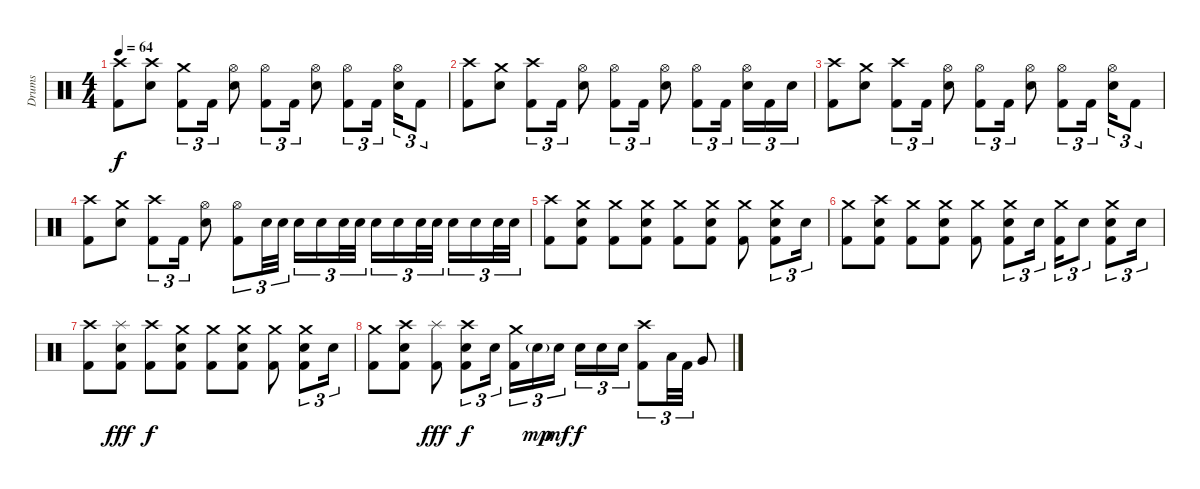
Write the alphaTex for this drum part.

\track ("Drums" "Drums") {instrument percussion}
\staff {score}
\articulation defaults
\ts (4 4)
\tempo 64
\clef neutral
\ks c
("Crash high (hit)" "Kick (hit) 2").8{dy f} ("Crash high (hit)" "Snare (hit) 2").8 ("Crash medium (hit)" "Kick (hit) 2").8{tu (3 2)} "Kick (hit) 2".16{tu (3 2)} ("Hi-Hat (open)" "Snare (hit) 2").8 ("Hi-Hat (open)" "Kick (hit) 2").8{tu (3 2)} "Kick (hit) 2".16{tu (3 2)} ("Hi-Hat (open)" "Snare (hit) 2").8 ("Hi-Hat (open)" "Kick (hit) 2").8{tu (3 2)} "Kick (hit) 2".16{tu (3 2)} ("Hi-Hat (open)" "Snare (hit) 2").16{tu (3 2)} "Kick (hit) 2".8{tu (3 2)} |
("Crash high (hit)" "Kick (hit) 2").8 ("Crash medium (hit)" "Snare (hit) 2").8 ("Crash high (hit)" "Kick (hit) 2").8{tu (3 2)} "Kick (hit) 2".16{tu (3 2)} ("Hi-Hat (open)" "Snare (hit) 2").8 ("Hi-Hat (open)" "Kick (hit) 2").8{tu (3 2)} "Kick (hit) 2".16{tu (3 2)} ("Hi-Hat (open)" "Snare (hit) 2").8 ("Hi-Hat (open)" "Kick (hit) 2").8{tu (3 2)} "Kick (hit) 2".16{tu (3 2)} ("Hi-Hat (open)" "Snare (hit) 2").16{tu (3 2)} "Kick (hit) 2".16{tu (3 2)} "Snare (hit) 2".16{tu (3 2)} |
("Crash high (hit)" "Kick (hit) 2").8 ("Crash medium (hit)" "Snare (hit) 2").8 ("Crash high (hit)" "Kick (hit) 2").8{tu (3 2)} "Kick (hit) 2".16{tu (3 2)} ("Hi-Hat (open)" "Snare (hit) 2").8 ("Hi-Hat (open)" "Kick (hit) 2").8{tu (3 2)} "Kick (hit) 2".16{tu (3 2)} ("Hi-Hat (open)" "Snare (hit) 2").8 ("Hi-Hat (open)" "Kick (hit) 2").8{tu (3 2)} "Kick (hit) 2".16{tu (3 2)} ("Hi-Hat (open)" "Snare (hit) 2").16{tu (3 2)} "Kick (hit) 2".8{tu (3 2)} |
("Crash high (hit)" "Kick (hit) 2").8 ("Crash medium (hit)" "Snare (hit) 2").8 ("Crash high (hit)" "Kick (hit) 2").8{tu (3 2)} "Kick (hit) 2".16{tu (3 2)} ("Hi-Hat (open)" "Snare (hit) 2").8 ("Hi-Hat (open)" "Kick (hit) 2").8{tu (3 2)} "Snare (hit) 2".32{tu (3 2)} "Snare (hit) 2".32{tu (3 2)} "Snare (hit) 2".16{tu (3 2)} "Snare (hit) 2".16{tu (3 2)} "Snare (hit) 2".32{tu (3 2)} "Snare (hit) 2".32{tu (3 2)} "Snare (hit) 2".16{tu (3 2)} "Snare (hit) 2".16{tu (3 2)} "Snare (hit) 2".32{tu (3 2)} "Snare (hit) 2".32{tu (3 2)} "Snare (hit) 2".16{tu (3 2)} "Snare (hit) 2".16{tu (3 2)} "Snare (hit) 2".32{tu (3 2)} "Snare (hit) 2".32{tu (3 2)} |
("Crash high (hit)" "Kick (hit) 2").8 ("Crash medium (hit)" "Snare (hit) 2" "Kick (hit) 2").8 ("Crash medium (hit)" "Kick (hit) 2").8 ("Crash medium (hit)" "Snare (hit) 2" "Kick (hit) 2").8 ("Crash medium (hit)" "Kick (hit) 2").8 ("Crash medium (hit)" "Snare (hit) 2" "Kick (hit) 2").8 ("Crash medium (hit)" "Kick (hit) 2").8 ("Crash medium (hit)" "Snare (hit) 2" "Kick (hit) 2").8{tu (3 2)} "Snare (hit) 2".16{tu (3 2)} |
("Crash medium (hit)" "Kick (hit) 2").8 ("Crash high (hit)" "Snare (hit) 2" "Kick (hit) 2").8 ("Crash medium (hit)" "Kick (hit) 2").8 ("Crash medium (hit)" "Snare (hit) 2" "Kick (hit) 2").8 ("Crash medium (hit)" "Kick (hit) 2").8 ("Crash medium (hit)" "Snare (hit) 2" "Kick (hit) 2").8{tu (3 2)} "Snare (hit) 2".16{tu (3 2)} ("Crash medium (hit)" "Kick (hit) 2").16{tu (3 2)} "Snare (hit) 2".8{tu (3 2)} ("Crash medium (hit)" "Snare (hit) 2" "Kick (hit) 2").8{tu (3 2)} "Snare (hit) 2".16{tu (3 2)} |
("Crash high (hit)" "Kick (hit) 2").8 ("Splash (hit)" "Snare (hit) 2" "Kick (hit) 2").8{dy fff} ("Crash high (hit)" "Kick (hit) 2").8{dy f} ("Crash medium (hit)" "Snare (hit) 2" "Kick (hit) 2").8 ("Crash medium (hit)" "Kick (hit) 2").8 ("Crash medium (hit)" "Snare (hit) 2" "Kick (hit) 2").8 ("Crash medium (hit)" "Kick (hit) 2").8 ("Crash medium (hit)" "Snare (hit) 2" "Kick (hit) 2").8{tu (3 2)} "Snare (hit) 2".16{tu (3 2)} |
("Crash medium (hit)" "Kick (hit) 2").8 ("Crash high (hit)" "Snare (hit) 2" "Kick (hit) 2").8 ("Splash (hit)" "Kick (hit) 2").8{dy fff} ("Crash high (hit)" "Snare (hit) 2" "Kick (hit) 2").8{tu (3 2) dy f} "Snare (hit) 2".16{tu (3 2)} ("Crash medium (hit)" "Kick (hit) 2").16{tu (3 2)} "Snare (hit) 2"{g}.16{tu (3 2) dy mp} "Snare (hit) 2".16{tu (3 2) dy mf} "Snare (hit) 2".16{tu (3 2) dy f} "Snare (hit) 2".16{tu (3 2)} "Snare (hit) 2".16{tu (3 2)} ("Crash high (hit)" "Kick (hit) 2").8{tu (3 2)} "Low Tom (hit)".32{tu (3 2)} "Kick (hit) 2".32{tu (3 2)} "Very Low Tom (hit)".8
